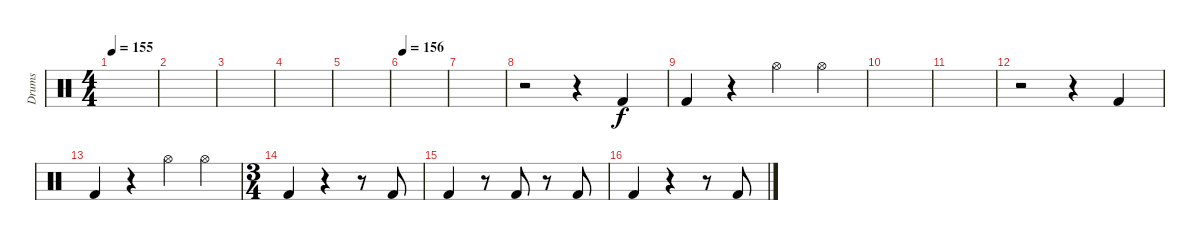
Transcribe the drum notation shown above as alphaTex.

\track ("Drums" "Drums") {instrument percussion}
\staff {score}
\articulation defaults
\ts (4 4)
\tempo 155
\clef neutral
\ks c
|
|
|
|
|
\tempo 156
|
|
r.2 r.4 "Kick (hit) 2".4 |
"Kick (hit) 2".4 r.4 "Hi-Hat (open)".4 "Hi-Hat (open)".4 |
|
|
r.2 r.4 "Kick (hit) 2".4 |
"Kick (hit) 2".4 r.4 "Hi-Hat (open)".4 "Hi-Hat (open)".4 |
\ts (3 4)
"Kick (hit) 2".4 r.4 r.8 "Kick (hit) 2".8 |
"Kick (hit) 2".4 r.8 "Kick (hit) 2".8 r.8 "Kick (hit) 2".8 |
"Kick (hit) 2".4 r.4 r.8 "Kick (hit) 2".8
